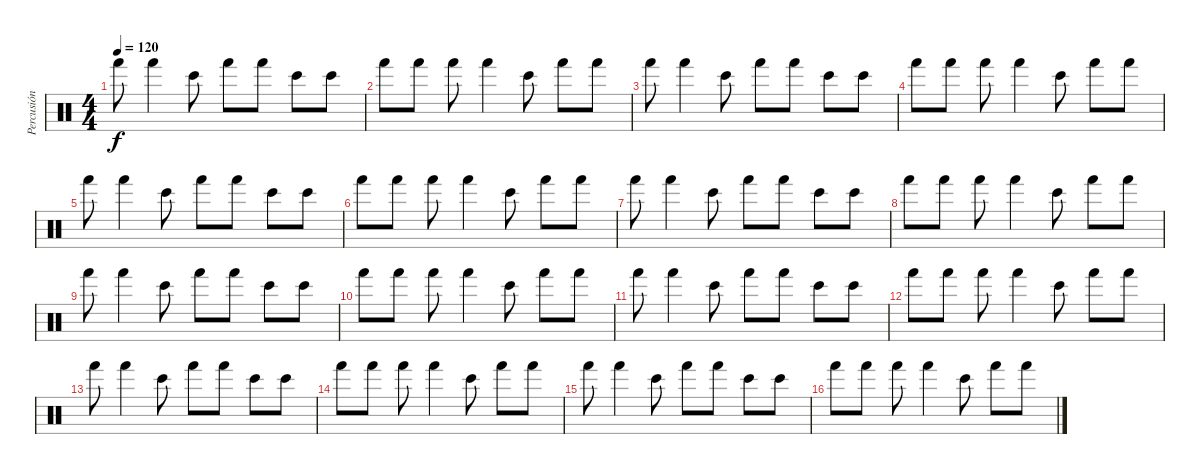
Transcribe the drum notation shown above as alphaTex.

\track ("Percusión" "Percusión") {instrument percussion}
\staff
\articulation defaults
\ts (4 4)
\tempo 120
\clef neutral
\ks c "Hand (hit)".8{dy f} "Hand (hit)".4 "Bongo High (hit)".8 "Hand (hit)".8 "Hand (hit)".8 "Bongo High (hit)".8 "Bongo High (hit)".8
|
"Hand (hit)".8 "Hand (hit)".8 "Hand (hit)".8 "Hand (hit)".4 "Bongo High (hit)".8 "Hand (hit)".8 "Hand (hit)".8 |
"Hand (hit)".8 "Hand (hit)".4 "Bongo High (hit)".8 "Hand (hit)".8 "Hand (hit)".8 "Bongo High (hit)".8 "Bongo High (hit)".8 |
"Hand (hit)".8 "Hand (hit)".8 "Hand (hit)".8 "Hand (hit)".4 "Bongo High (hit)".8 "Hand (hit)".8 "Hand (hit)".8 |
"Hand (hit)".8 "Hand (hit)".4 "Bongo High (hit)".8 "Hand (hit)".8 "Hand (hit)".8 "Bongo High (hit)".8 "Bongo High (hit)".8 |
"Hand (hit)".8 "Hand (hit)".8 "Hand (hit)".8 "Hand (hit)".4 "Bongo High (hit)".8 "Hand (hit)".8 "Hand (hit)".8 |
"Hand (hit)".8 "Hand (hit)".4 "Bongo High (hit)".8 "Hand (hit)".8 "Hand (hit)".8 "Bongo High (hit)".8 "Bongo High (hit)".8 |
"Hand (hit)".8 "Hand (hit)".8 "Hand (hit)".8 "Hand (hit)".4 "Bongo High (hit)".8 "Hand (hit)".8 "Hand (hit)".8 |
"Hand (hit)".8 "Hand (hit)".4 "Bongo High (hit)".8 "Hand (hit)".8 "Hand (hit)".8 "Bongo High (hit)".8 "Bongo High (hit)".8 |
"Hand (hit)".8 "Hand (hit)".8 "Hand (hit)".8 "Hand (hit)".4 "Bongo High (hit)".8 "Hand (hit)".8 "Hand (hit)".8 |
"Hand (hit)".8 "Hand (hit)".4 "Bongo High (hit)".8 "Hand (hit)".8 "Hand (hit)".8 "Bongo High (hit)".8 "Bongo High (hit)".8 |
"Hand (hit)".8 "Hand (hit)".8 "Hand (hit)".8 "Hand (hit)".4 "Bongo High (hit)".8 "Hand (hit)".8 "Hand (hit)".8 |
"Hand (hit)".8 "Hand (hit)".4 "Bongo High (hit)".8 "Hand (hit)".8 "Hand (hit)".8 "Bongo High (hit)".8 "Bongo High (hit)".8 |
"Hand (hit)".8 "Hand (hit)".8 "Hand (hit)".8 "Hand (hit)".4 "Bongo High (hit)".8 "Hand (hit)".8 "Hand (hit)".8 |
"Hand (hit)".8 "Hand (hit)".4 "Bongo High (hit)".8 "Hand (hit)".8 "Hand (hit)".8 "Bongo High (hit)".8 "Bongo High (hit)".8 |
"Hand (hit)".8 "Hand (hit)".8 "Hand (hit)".8 "Hand (hit)".4 "Bongo High (hit)".8 "Hand (hit)".8 "Hand (hit)".8
